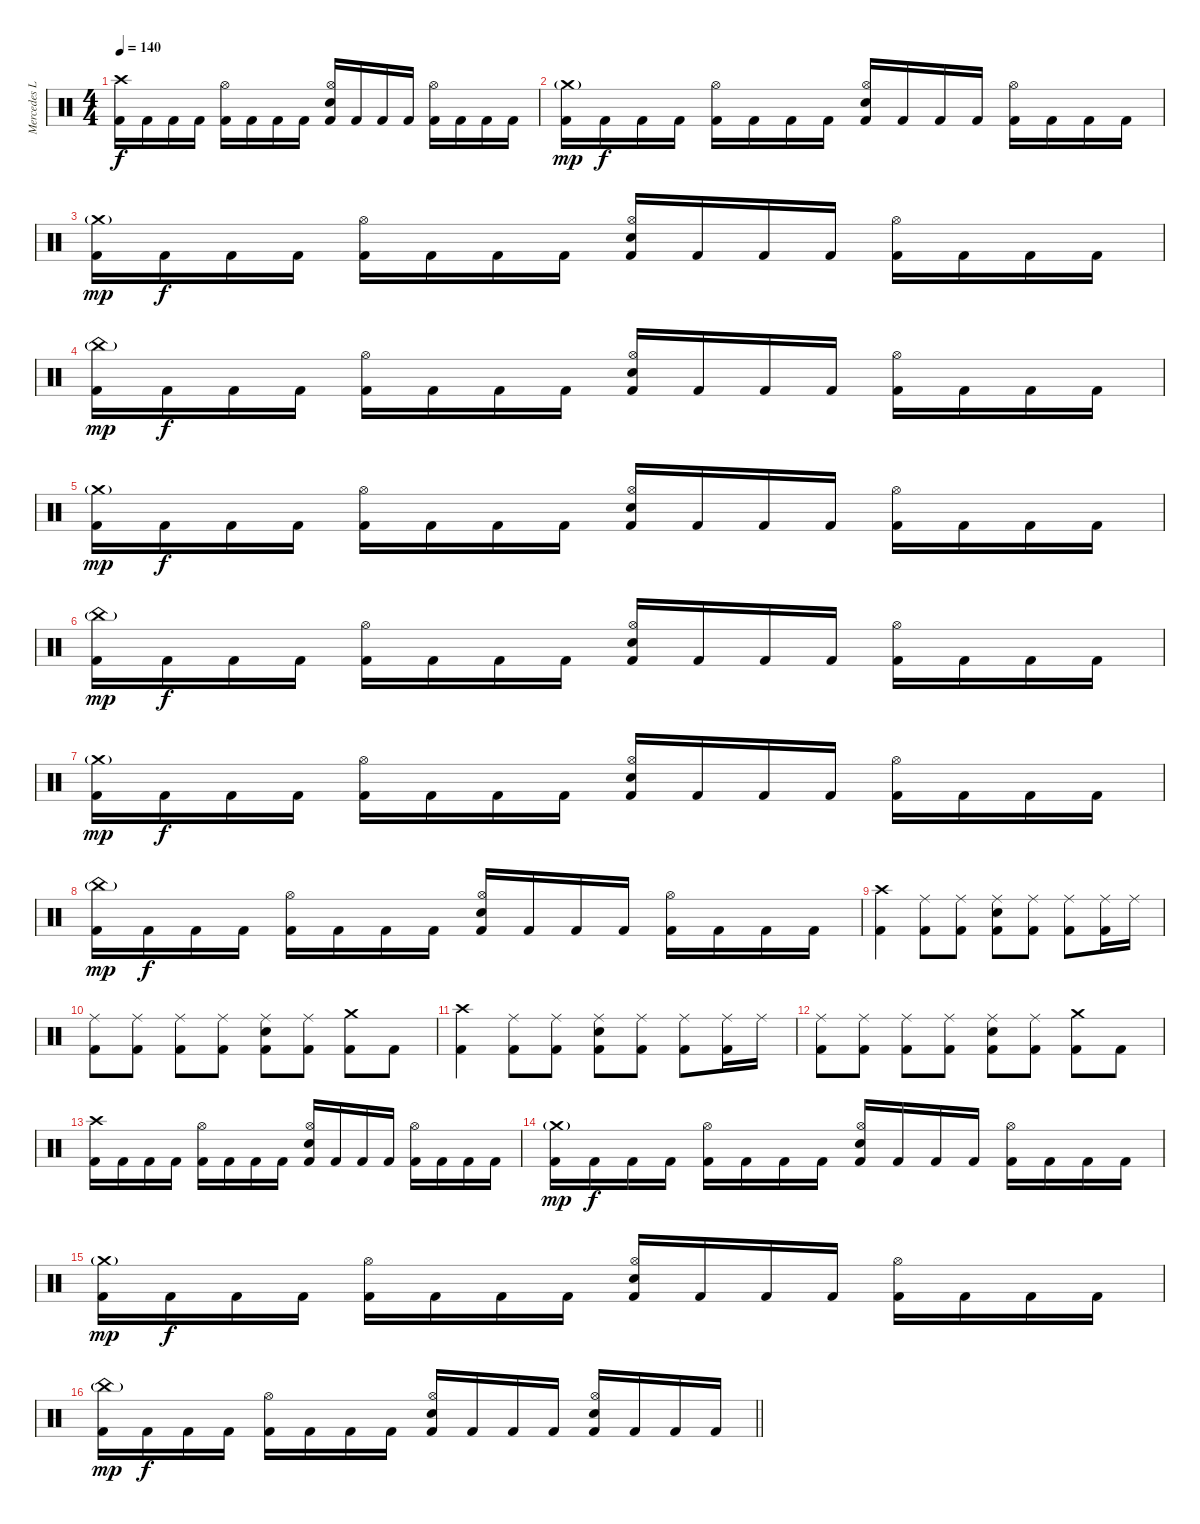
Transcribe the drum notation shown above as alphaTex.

\track ("Mercedes Lander" "Mercedes L") {instrument percussion}
\staff {score}
\articulation defaults
\ts (4 4)
\tempo 140
\clef neutral
\ks c
("Crash high (hit)" "Kick (hit) 2").16{dy f} "Kick (hit) 2".16 "Kick (hit) 2".16 "Kick (hit) 2".16 ("Hi-Hat (open)" "Kick (hit) 2").16 "Kick (hit) 2".16 "Kick (hit) 2".16 "Kick (hit) 2".16 ("Hi-Hat (open)" "Snare (hit) 2" "Kick (hit) 2").16 "Kick (hit) 2".16 "Kick (hit) 2".16 "Kick (hit) 2".16 ("Hi-Hat (open)" "Kick (hit) 2").16 "Kick (hit) 2".16 "Kick (hit) 2".16 "Kick (hit) 2".16 |
("Crash medium (hit)"{g} "Kick (hit) 2").16{dy mp} "Kick (hit) 2".16{dy f} "Kick (hit) 2".16 "Kick (hit) 2".16 ("Hi-Hat (open)" "Kick (hit) 2").16 "Kick (hit) 2".16 "Kick (hit) 2".16 "Kick (hit) 2".16 ("Hi-Hat (open)" "Snare (hit) 2" "Kick (hit) 2").16 "Kick (hit) 2".16 "Kick (hit) 2".16 "Kick (hit) 2".16 ("Hi-Hat (open)" "Kick (hit) 2").16 "Kick (hit) 2".16 "Kick (hit) 2".16 "Kick (hit) 2".16 |
("Crash medium (hit)"{g} "Kick (hit) 2").16{dy mp} "Kick (hit) 2".16{dy f} "Kick (hit) 2".16 "Kick (hit) 2".16 ("Hi-Hat (open)" "Kick (hit) 2").16 "Kick (hit) 2".16 "Kick (hit) 2".16 "Kick (hit) 2".16 ("Hi-Hat (open)" "Snare (hit) 2" "Kick (hit) 2").16 "Kick (hit) 2".16 "Kick (hit) 2".16 "Kick (hit) 2".16 ("Hi-Hat (open)" "Kick (hit) 2").16 "Kick (hit) 2".16 "Kick (hit) 2".16 "Kick (hit) 2".16 |
("China (hit)"{g} "Kick (hit) 2").16{dy mp} "Kick (hit) 2".16{dy f} "Kick (hit) 2".16 "Kick (hit) 2".16 ("Hi-Hat (open)" "Kick (hit) 2").16 "Kick (hit) 2".16 "Kick (hit) 2".16 "Kick (hit) 2".16 ("Hi-Hat (open)" "Snare (hit) 2" "Kick (hit) 2").16 "Kick (hit) 2".16 "Kick (hit) 2".16 "Kick (hit) 2".16 ("Hi-Hat (open)" "Kick (hit) 2").16 "Kick (hit) 2".16 "Kick (hit) 2".16 "Kick (hit) 2".16 |
("Crash medium (hit)"{g} "Kick (hit) 2").16{dy mp} "Kick (hit) 2".16{dy f} "Kick (hit) 2".16 "Kick (hit) 2".16 ("Hi-Hat (open)" "Kick (hit) 2").16 "Kick (hit) 2".16 "Kick (hit) 2".16 "Kick (hit) 2".16 ("Hi-Hat (open)" "Snare (hit) 2" "Kick (hit) 2").16 "Kick (hit) 2".16 "Kick (hit) 2".16 "Kick (hit) 2".16 ("Hi-Hat (open)" "Kick (hit) 2").16 "Kick (hit) 2".16 "Kick (hit) 2".16 "Kick (hit) 2".16 |
("China (hit)"{g} "Kick (hit) 2").16{dy mp} "Kick (hit) 2".16{dy f} "Kick (hit) 2".16 "Kick (hit) 2".16 ("Hi-Hat (open)" "Kick (hit) 2").16 "Kick (hit) 2".16 "Kick (hit) 2".16 "Kick (hit) 2".16 ("Hi-Hat (open)" "Snare (hit) 2" "Kick (hit) 2").16 "Kick (hit) 2".16 "Kick (hit) 2".16 "Kick (hit) 2".16 ("Hi-Hat (open)" "Kick (hit) 2").16 "Kick (hit) 2".16 "Kick (hit) 2".16 "Kick (hit) 2".16 |
("Crash medium (hit)"{g} "Kick (hit) 2").16{dy mp} "Kick (hit) 2".16{dy f} "Kick (hit) 2".16 "Kick (hit) 2".16 ("Hi-Hat (open)" "Kick (hit) 2").16 "Kick (hit) 2".16 "Kick (hit) 2".16 "Kick (hit) 2".16 ("Hi-Hat (open)" "Snare (hit) 2" "Kick (hit) 2").16 "Kick (hit) 2".16 "Kick (hit) 2".16 "Kick (hit) 2".16 ("Hi-Hat (open)" "Kick (hit) 2").16 "Kick (hit) 2".16 "Kick (hit) 2".16 "Kick (hit) 2".16 |
("China (hit)"{g} "Kick (hit) 2").16{dy mp} "Kick (hit) 2".16{dy f} "Kick (hit) 2".16 "Kick (hit) 2".16 ("Hi-Hat (open)" "Kick (hit) 2").16 "Kick (hit) 2".16 "Kick (hit) 2".16 "Kick (hit) 2".16 ("Hi-Hat (open)" "Snare (hit) 2" "Kick (hit) 2").16 "Kick (hit) 2".16 "Kick (hit) 2".16 "Kick (hit) 2".16 ("Hi-Hat (open)" "Kick (hit) 2").16 "Kick (hit) 2".16 "Kick (hit) 2".16 "Kick (hit) 2".16 |
("Crash high (hit)" "Kick (hit) 2").4 ("Ride (middle)" "Kick (hit) 2").8 ("Ride (middle)" "Kick (hit) 2").8 ("Ride (middle)" "Snare (hit) 2" "Kick (hit) 2").8 ("Ride (middle)" "Kick (hit) 2").8 ("Ride (middle)" "Kick (hit) 2").8 ("Ride (middle)" "Kick (hit) 2").16 "Ride (middle)".16 |
("Ride (middle)" "Kick (hit) 2").8 ("Ride (middle)" "Kick (hit) 2").8 ("Ride (middle)" "Kick (hit) 2").8 ("Ride (middle)" "Kick (hit) 2").8 ("Ride (middle)" "Snare (hit) 2" "Kick (hit) 2").8 ("Ride (middle)" "Kick (hit) 2").8 ("Crash medium (hit)" "Kick (hit) 2").8 "Kick (hit) 2".8 |
("Crash high (hit)" "Kick (hit) 2").4 ("Ride (middle)" "Kick (hit) 2").8 ("Ride (middle)" "Kick (hit) 2").8 ("Ride (middle)" "Snare (hit) 2" "Kick (hit) 2").8 ("Ride (middle)" "Kick (hit) 2").8 ("Ride (middle)" "Kick (hit) 2").8 ("Ride (middle)" "Kick (hit) 2").16 "Ride (middle)".16 |
("Ride (middle)" "Kick (hit) 2").8 ("Ride (middle)" "Kick (hit) 2").8 ("Ride (middle)" "Kick (hit) 2").8 ("Ride (middle)" "Kick (hit) 2").8 ("Ride (middle)" "Snare (hit) 2" "Kick (hit) 2").8 ("Ride (middle)" "Kick (hit) 2").8 ("Crash medium (hit)" "Kick (hit) 2").8 "Kick (hit) 2".8 |
("Crash high (hit)" "Kick (hit) 2").16 "Kick (hit) 2".16 "Kick (hit) 2".16 "Kick (hit) 2".16 ("Hi-Hat (open)" "Kick (hit) 2").16 "Kick (hit) 2".16 "Kick (hit) 2".16 "Kick (hit) 2".16 ("Hi-Hat (open)" "Snare (hit) 2" "Kick (hit) 2").16 "Kick (hit) 2".16 "Kick (hit) 2".16 "Kick (hit) 2".16 ("Hi-Hat (open)" "Kick (hit) 2").16 "Kick (hit) 2".16 "Kick (hit) 2".16 "Kick (hit) 2".16 |
("Crash medium (hit)"{g} "Kick (hit) 2").16{dy mp} "Kick (hit) 2".16{dy f} "Kick (hit) 2".16 "Kick (hit) 2".16 ("Hi-Hat (open)" "Kick (hit) 2").16 "Kick (hit) 2".16 "Kick (hit) 2".16 "Kick (hit) 2".16 ("Hi-Hat (open)" "Snare (hit) 2" "Kick (hit) 2").16 "Kick (hit) 2".16 "Kick (hit) 2".16 "Kick (hit) 2".16 ("Hi-Hat (open)" "Kick (hit) 2").16 "Kick (hit) 2".16 "Kick (hit) 2".16 "Kick (hit) 2".16 |
("Crash medium (hit)"{g} "Kick (hit) 2").16{dy mp} "Kick (hit) 2".16{dy f} "Kick (hit) 2".16 "Kick (hit) 2".16 ("Hi-Hat (open)" "Kick (hit) 2").16 "Kick (hit) 2".16 "Kick (hit) 2".16 "Kick (hit) 2".16 ("Hi-Hat (open)" "Snare (hit) 2" "Kick (hit) 2").16 "Kick (hit) 2".16 "Kick (hit) 2".16 "Kick (hit) 2".16 ("Hi-Hat (open)" "Kick (hit) 2").16 "Kick (hit) 2".16 "Kick (hit) 2".16 "Kick (hit) 2".16 |
\barLineRight lightlight
("China (hit)"{g} "Kick (hit) 2").16{dy mp} "Kick (hit) 2".16{dy f} "Kick (hit) 2".16 "Kick (hit) 2".16 ("Hi-Hat (open)" "Kick (hit) 2").16 "Kick (hit) 2".16 "Kick (hit) 2".16 "Kick (hit) 2".16 ("Hi-Hat (open)" "Snare (hit) 2" "Kick (hit) 2").16 "Kick (hit) 2".16 "Kick (hit) 2".16 "Kick (hit) 2".16 ("Hi-Hat (open)" "Snare (hit) 2" "Kick (hit) 2").16 "Kick (hit) 2".16 "Kick (hit) 2".16 "Kick (hit) 2".16
